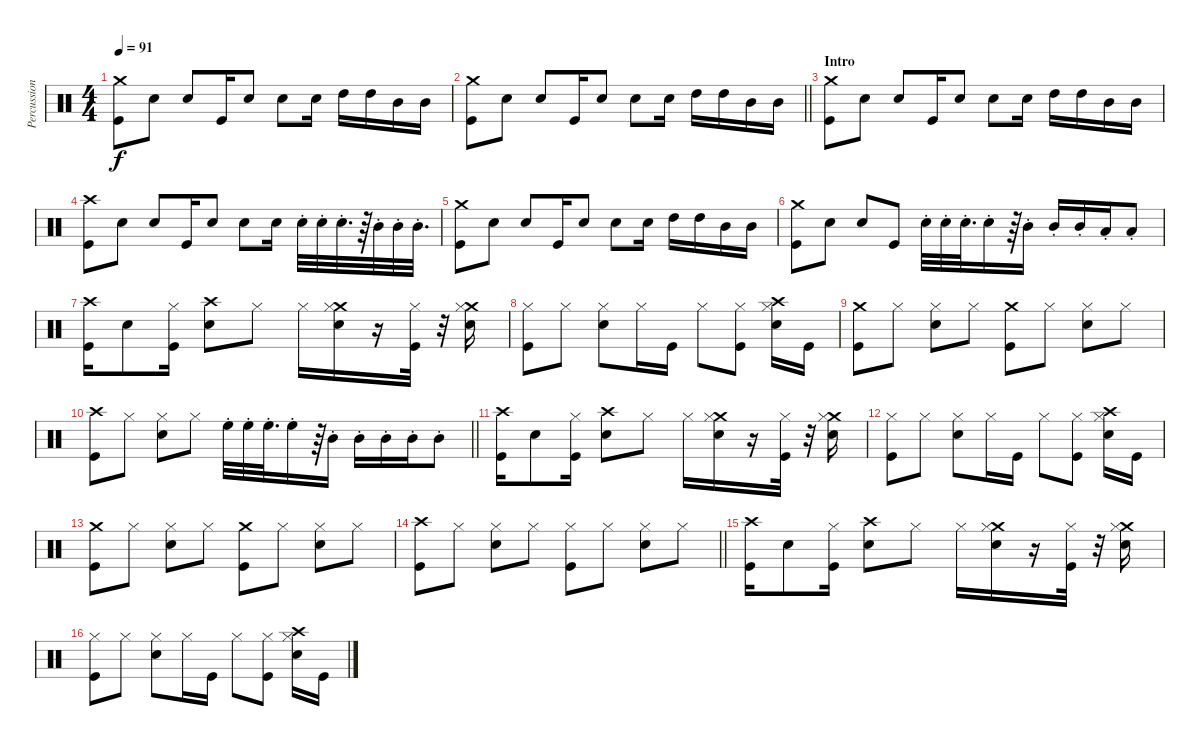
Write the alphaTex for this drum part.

\track ("Percussion" "Percussion") {instrument percussion}
\staff {score}
\articulation defaults
\ts (4 4)
\tempo 91
\clef neutral
\ks c
("Crash medium (hit)" "Kick (hit)").8{dy f} "Snare (hit) 2".8 "Snare (hit) 2".8 "Kick (hit)".16 "Snare (hit) 2".8 "Snare (hit) 2".8 "Snare (hit) 2".16 "High Tom (hit)".16 "High Tom (hit)".16 "Mid Tom (hit)".16 "Mid Tom (hit)".16 |
\barLineRight lightlight
("Crash medium (hit)" "Kick (hit)").8 "Snare (hit) 2".8 "Snare (hit) 2".8 "Kick (hit)".16 "Snare (hit) 2".8 "Snare (hit) 2".8 "Snare (hit) 2".16 "High Tom (hit)".16 "High Tom (hit)".16 "Mid Tom (hit)".16 "Mid Tom (hit)".16 |
\section ("" "Intro")
("Crash medium (hit)" "Kick (hit)").8 "Snare (hit) 2".8 "Snare (hit) 2".8 "Kick (hit)".16 "Snare (hit) 2".8 "Snare (hit) 2".8 "Snare (hit) 2".16 "High Tom (hit)".16 "High Tom (hit)".16 "Mid Tom (hit)".16 "Mid Tom (hit)".16 |
("Crash high (hit)" "Kick (hit)").8 "Snare (hit) 2".8 "Snare (hit) 2".8 "Kick (hit)".16 "Snare (hit) 2".8 "Snare (hit) 2".8 "Snare (hit) 2".16 "Snare (hit) 2"{st}.32 "Snare (hit) 2"{st}.32 "Snare (hit) 2"{st}.32{d} r.64 "Mid Tom (hit)"{st}.32 "Mid Tom (hit)"{st}.32 "Mid Tom (hit)"{st}.32{d} |
("Crash medium (hit)" "Kick (hit)").8 "Snare (hit) 2".8 "Snare (hit) 2".8 "Kick (hit)".16 "Snare (hit) 2".8 "Snare (hit) 2".8 "Snare (hit) 2".16 "High Tom (hit)".16 "High Tom (hit)".16 "Mid Tom (hit)".16 "Mid Tom (hit)".16 |
("Crash medium (hit)" "Kick (hit)").8 "Snare (hit) 2".8 "Snare (hit) 2".8 "Kick (hit)".8 "Snare (hit) 2"{st}.32 "Snare (hit) 2"{st}.32 "Snare (hit) 2"{st}.32{d} "Snare (hit) 2"{st}.16 r.64 "Mid Tom (hit)"{st}.16 "Mid Tom (hit)"{st}.16 "Mid Tom (hit)"{st}.16 "Low Floor Tom (hit)"{st}.16 "Low Floor Tom (hit)"{st}.8 |
("Crash high (hit)" "Kick (hit)").16 "Snare (hit) 2".8 ("Hi-Hat (closed)" "Kick (hit)").16 ("Crash high (hit)" "Snare (hit) 2").8 "Hi-Hat (closed)".8 "Hi-Hat (closed)".16 ("Crash medium (hit)" "Hi-Hat (closed)" "Snare (hit) 2").16 r.16 ("Hi-Hat (closed)" "Kick (hit)").32 r.32 ("Crash medium (hit)" "Hi-Hat (closed)" "Snare (hit) 2").16 |
("Hi-Hat (closed)" "Kick (hit)").8 "Hi-Hat (closed)".8 ("Hi-Hat (closed)" "Snare (hit) 2").8 "Hi-Hat (closed)".16 "Kick (hit)".16 "Hi-Hat (closed)".8 ("Hi-Hat (closed)" "Kick (hit)").8 ("Crash high (hit)" "Hi-Hat (closed)" "Snare (hit) 2").16 "Kick (hit)".16 |
("Crash medium (hit)" "Kick (hit)").8 "Hi-Hat (closed)".8 ("Hi-Hat (closed)" "Snare (hit) 2").8 "Hi-Hat (closed)".8 ("Crash medium (hit)" "Kick (hit)").8 "Hi-Hat (closed)".8 ("Hi-Hat (closed)" "Snare (hit) 2").8 "Hi-Hat (closed)".8 |
\barLineRight lightlight
("Crash high (hit)" "Kick (hit)").8 "Hi-Hat (closed)".8 ("Hi-Hat (closed)" "Snare (hit) 2").8 "Hi-Hat (closed)".8 "High Floor Tom (hit)"{st}.32 "High Floor Tom (hit)"{st}.32 "High Floor Tom (hit)"{st}.32{d} "High Floor Tom (hit)"{st}.16 r.64 "Mid Tom (hit)"{st}.16 "Mid Tom (hit)"{st}.16 "Mid Tom (hit)"{st}.16 "Mid Tom (hit)"{st}.16 "Mid Tom (hit)"{st}.8 |
("Crash high (hit)" "Kick (hit)").16 "Snare (hit) 2".8 ("Hi-Hat (closed)" "Kick (hit)").16 ("Crash high (hit)" "Snare (hit) 2").8 "Hi-Hat (closed)".8 "Hi-Hat (closed)".16 ("Crash medium (hit)" "Hi-Hat (closed)" "Snare (hit) 2").16 r.16 ("Hi-Hat (closed)" "Kick (hit)").32 r.32 ("Crash medium (hit)" "Hi-Hat (closed)" "Snare (hit) 2").16 |
("Hi-Hat (closed)" "Kick (hit)").8 "Hi-Hat (closed)".8 ("Hi-Hat (closed)" "Snare (hit) 2").8 "Hi-Hat (closed)".16 "Kick (hit)".16 "Hi-Hat (closed)".8 ("Hi-Hat (closed)" "Kick (hit)").8 ("Crash high (hit)" "Hi-Hat (closed)" "Snare (hit) 2").16 "Kick (hit)".16 |
("Crash medium (hit)" "Kick (hit)").8 "Hi-Hat (closed)".8 ("Hi-Hat (closed)" "Snare (hit) 2").8 "Hi-Hat (closed)".8 ("Crash medium (hit)" "Kick (hit)").8 "Hi-Hat (closed)".8 ("Hi-Hat (closed)" "Snare (hit) 2").8 "Hi-Hat (closed)".8 |
\barLineRight lightlight
("Crash high (hit)" "Kick (hit)").8 "Hi-Hat (closed)".8 ("Hi-Hat (closed)" "Snare (hit) 2").8 "Hi-Hat (closed)".8 ("Hi-Hat (closed)" "Kick (hit)").8 "Hi-Hat (closed)".8 ("Hi-Hat (closed)" "Snare (hit) 2").8 "Hi-Hat (closed)".8 |
("Crash high (hit)" "Kick (hit)").16 "Snare (hit) 2".8 ("Hi-Hat (closed)" "Kick (hit)").16 ("Crash high (hit)" "Snare (hit) 2").8 "Hi-Hat (closed)".8 "Hi-Hat (closed)".16 ("Crash medium (hit)" "Hi-Hat (closed)" "Snare (hit) 2").16 r.16 ("Hi-Hat (closed)" "Kick (hit)").32 r.32 ("Crash medium (hit)" "Hi-Hat (closed)" "Snare (hit) 2").16 |
("Hi-Hat (closed)" "Kick (hit)").8 "Hi-Hat (closed)".8 ("Hi-Hat (closed)" "Snare (hit) 2").8 "Hi-Hat (closed)".16 "Kick (hit)".16 "Hi-Hat (closed)".8 ("Hi-Hat (closed)" "Kick (hit)").8 ("Crash high (hit)" "Hi-Hat (closed)" "Snare (hit) 2").16 "Kick (hit)".16
